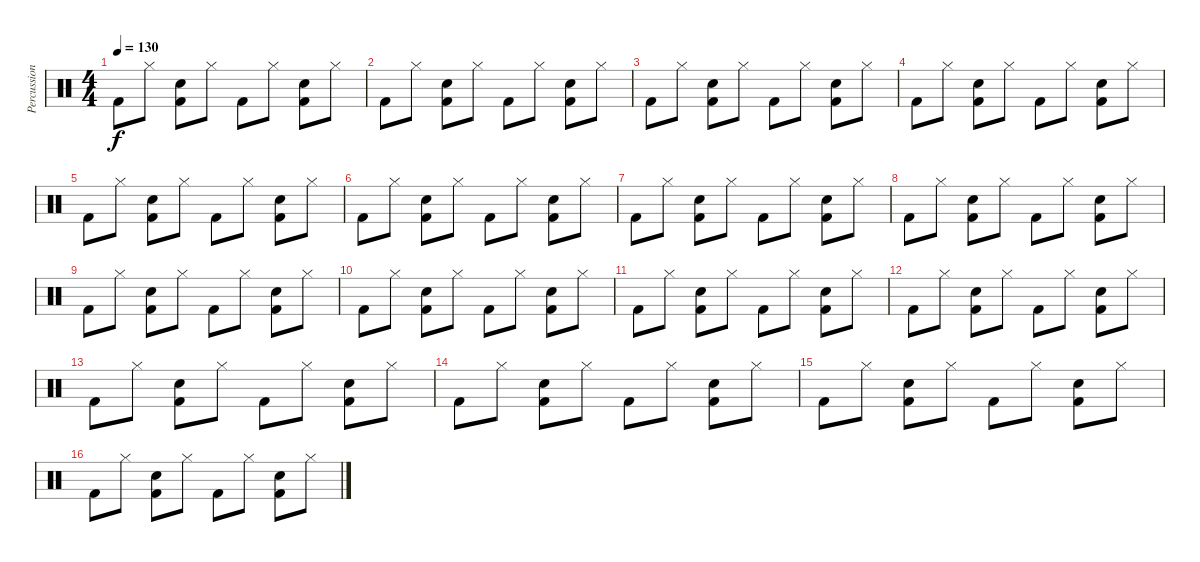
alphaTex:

\track ("Percussion" "Percussion") {instrument percussion}
\staff {score}
\articulation defaults
\ts (4 4)
\tempo 130
\clef neutral
\ks c "Kick (hit) 2".8{dy f} "Hi-Hat (closed)".8
("Electric Snare (hit)" "Kick (hit) 2").8 "Hi-Hat (closed)".8 "Kick (hit) 2".8 "Hi-Hat (closed)".8 ("Electric Snare (hit)" "Kick (hit) 2").8 "Hi-Hat (closed)".8 |
"Kick (hit) 2".8 "Hi-Hat (closed)".8 ("Electric Snare (hit)" "Kick (hit) 2").8 "Hi-Hat (closed)".8 "Kick (hit) 2".8 "Hi-Hat (closed)".8 ("Electric Snare (hit)" "Kick (hit) 2").8 "Hi-Hat (closed)".8 |
"Kick (hit) 2".8 "Hi-Hat (closed)".8 ("Electric Snare (hit)" "Kick (hit) 2").8 "Hi-Hat (closed)".8 "Kick (hit) 2".8 "Hi-Hat (closed)".8 ("Electric Snare (hit)" "Kick (hit) 2").8 "Hi-Hat (closed)".8 |
"Kick (hit) 2".8 "Hi-Hat (closed)".8 ("Electric Snare (hit)" "Kick (hit) 2").8 "Hi-Hat (closed)".8 "Kick (hit) 2".8 "Hi-Hat (closed)".8 ("Electric Snare (hit)" "Kick (hit) 2").8 "Hi-Hat (closed)".8 |
"Kick (hit) 2".8 "Hi-Hat (closed)".8 ("Electric Snare (hit)" "Kick (hit) 2").8 "Hi-Hat (closed)".8 "Kick (hit) 2".8 "Hi-Hat (closed)".8 ("Electric Snare (hit)" "Kick (hit) 2").8 "Hi-Hat (closed)".8 |
"Kick (hit) 2".8 "Hi-Hat (closed)".8 ("Electric Snare (hit)" "Kick (hit) 2").8 "Hi-Hat (closed)".8 "Kick (hit) 2".8 "Hi-Hat (closed)".8 ("Electric Snare (hit)" "Kick (hit) 2").8 "Hi-Hat (closed)".8 |
"Kick (hit) 2".8 "Hi-Hat (closed)".8 ("Electric Snare (hit)" "Kick (hit) 2").8 "Hi-Hat (closed)".8 "Kick (hit) 2".8 "Hi-Hat (closed)".8 ("Electric Snare (hit)" "Kick (hit) 2").8 "Hi-Hat (closed)".8 |
"Kick (hit) 2".8 "Hi-Hat (closed)".8 ("Electric Snare (hit)" "Kick (hit) 2").8 "Hi-Hat (closed)".8 "Kick (hit) 2".8 "Hi-Hat (closed)".8 ("Electric Snare (hit)" "Kick (hit) 2").8 "Hi-Hat (closed)".8 |
"Kick (hit) 2".8 "Hi-Hat (closed)".8 ("Electric Snare (hit)" "Kick (hit) 2").8 "Hi-Hat (closed)".8 "Kick (hit) 2".8 "Hi-Hat (closed)".8 ("Electric Snare (hit)" "Kick (hit) 2").8 "Hi-Hat (closed)".8 |
"Kick (hit) 2".8 "Hi-Hat (closed)".8 ("Electric Snare (hit)" "Kick (hit) 2").8 "Hi-Hat (closed)".8 "Kick (hit) 2".8 "Hi-Hat (closed)".8 ("Electric Snare (hit)" "Kick (hit) 2").8 "Hi-Hat (closed)".8 |
"Kick (hit) 2".8 "Hi-Hat (closed)".8 ("Electric Snare (hit)" "Kick (hit) 2").8 "Hi-Hat (closed)".8 "Kick (hit) 2".8 "Hi-Hat (closed)".8 ("Electric Snare (hit)" "Kick (hit) 2").8 "Hi-Hat (closed)".8 |
"Kick (hit) 2".8 "Hi-Hat (closed)".8 ("Electric Snare (hit)" "Kick (hit) 2").8 "Hi-Hat (closed)".8 "Kick (hit) 2".8 "Hi-Hat (closed)".8 ("Electric Snare (hit)" "Kick (hit) 2").8 "Hi-Hat (closed)".8 |
"Kick (hit) 2".8 "Hi-Hat (closed)".8 ("Electric Snare (hit)" "Kick (hit) 2").8 "Hi-Hat (closed)".8 "Kick (hit) 2".8 "Hi-Hat (closed)".8 ("Electric Snare (hit)" "Kick (hit) 2").8 "Hi-Hat (closed)".8 |
"Kick (hit) 2".8 "Hi-Hat (closed)".8 ("Electric Snare (hit)" "Kick (hit) 2").8 "Hi-Hat (closed)".8 "Kick (hit) 2".8 "Hi-Hat (closed)".8 ("Electric Snare (hit)" "Kick (hit) 2").8 "Hi-Hat (closed)".8 |
"Kick (hit) 2".8 "Hi-Hat (closed)".8 ("Electric Snare (hit)" "Kick (hit) 2").8 "Hi-Hat (closed)".8 "Kick (hit) 2".8 "Hi-Hat (closed)".8 ("Electric Snare (hit)" "Kick (hit) 2").8 "Hi-Hat (closed)".8 |
"Kick (hit) 2".8 "Hi-Hat (closed)".8 ("Electric Snare (hit)" "Kick (hit) 2").8 "Hi-Hat (closed)".8 "Kick (hit) 2".8 "Hi-Hat (closed)".8 ("Electric Snare (hit)" "Kick (hit) 2").8 "Hi-Hat (closed)".8
